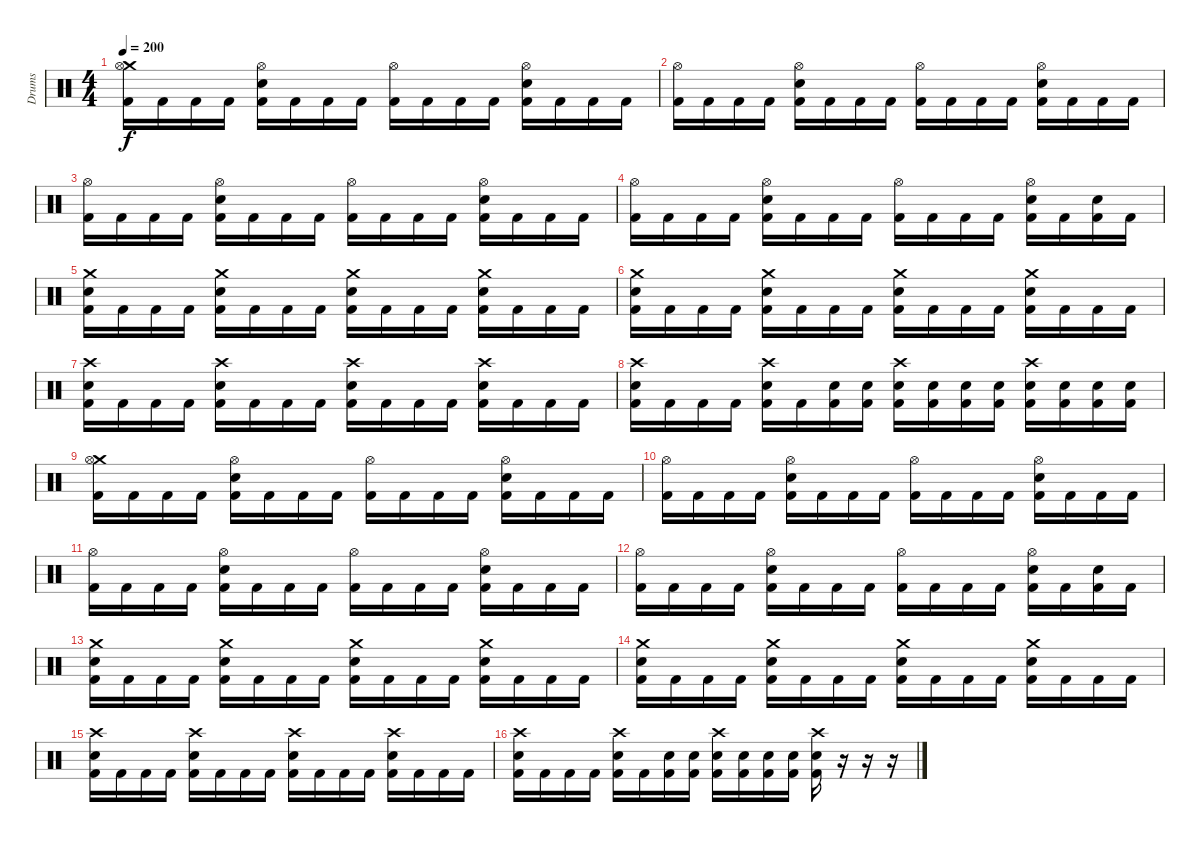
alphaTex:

\track ("Drums" "Drums") {instrument percussion}
\staff {score}
\articulation defaults
\ts (4 4)
\tempo 200
\clef neutral
\ks c
("Crash medium (hit)" "Hi-Hat (open)" "Kick (hit) 2").16{dy f} "Kick (hit) 2".16 "Kick (hit) 2".16 "Kick (hit) 2".16 ("Hi-Hat (open)" "Electric Snare (hit)" "Kick (hit) 2").16 "Kick (hit) 2".16 "Kick (hit) 2".16 "Kick (hit) 2".16 ("Hi-Hat (open)" "Kick (hit) 2").16 "Kick (hit) 2".16 "Kick (hit) 2".16 "Kick (hit) 2".16 ("Hi-Hat (open)" "Electric Snare (hit)" "Kick (hit) 2").16 "Kick (hit) 2".16 "Kick (hit) 2".16 "Kick (hit) 2".16 |
("Hi-Hat (open)" "Kick (hit) 2").16 "Kick (hit) 2".16 "Kick (hit) 2".16 "Kick (hit) 2".16 ("Hi-Hat (open)" "Electric Snare (hit)" "Kick (hit) 2").16 "Kick (hit) 2".16 "Kick (hit) 2".16 "Kick (hit) 2".16 ("Hi-Hat (open)" "Kick (hit) 2").16 "Kick (hit) 2".16 "Kick (hit) 2".16 "Kick (hit) 2".16 ("Hi-Hat (open)" "Electric Snare (hit)" "Kick (hit) 2").16 "Kick (hit) 2".16 "Kick (hit) 2".16 "Kick (hit) 2".16 |
("Hi-Hat (open)" "Kick (hit) 2").16 "Kick (hit) 2".16 "Kick (hit) 2".16 "Kick (hit) 2".16 ("Hi-Hat (open)" "Electric Snare (hit)" "Kick (hit) 2").16 "Kick (hit) 2".16 "Kick (hit) 2".16 "Kick (hit) 2".16 ("Hi-Hat (open)" "Kick (hit) 2").16 "Kick (hit) 2".16 "Kick (hit) 2".16 "Kick (hit) 2".16 ("Hi-Hat (open)" "Electric Snare (hit)" "Kick (hit) 2").16 "Kick (hit) 2".16 "Kick (hit) 2".16 "Kick (hit) 2".16 |
("Hi-Hat (open)" "Kick (hit) 2").16 "Kick (hit) 2".16 "Kick (hit) 2".16 "Kick (hit) 2".16 ("Hi-Hat (open)" "Electric Snare (hit)" "Kick (hit) 2").16 "Kick (hit) 2".16 "Kick (hit) 2".16 "Kick (hit) 2".16 ("Hi-Hat (open)" "Kick (hit) 2").16 "Kick (hit) 2".16 "Kick (hit) 2".16 "Kick (hit) 2".16 ("Hi-Hat (open)" "Electric Snare (hit)" "Kick (hit) 2").16 "Kick (hit) 2".16 ("Electric Snare (hit)" "Kick (hit) 2").16 "Kick (hit) 2".16 |
("Crash medium (hit)" "Electric Snare (hit)" "Kick (hit) 2").16 "Kick (hit) 2".16 "Kick (hit) 2".16 "Kick (hit) 2".16 ("Crash medium (hit)" "Electric Snare (hit)" "Kick (hit) 2").16 "Kick (hit) 2".16 "Kick (hit) 2".16 "Kick (hit) 2".16 ("Crash medium (hit)" "Electric Snare (hit)" "Kick (hit) 2").16 "Kick (hit) 2".16 "Kick (hit) 2".16 "Kick (hit) 2".16 ("Crash medium (hit)" "Electric Snare (hit)" "Kick (hit) 2").16 "Kick (hit) 2".16 "Kick (hit) 2".16 "Kick (hit) 2".16 |
("Crash medium (hit)" "Electric Snare (hit)" "Kick (hit) 2").16 "Kick (hit) 2".16 "Kick (hit) 2".16 "Kick (hit) 2".16 ("Crash medium (hit)" "Electric Snare (hit)" "Kick (hit) 2").16 "Kick (hit) 2".16 "Kick (hit) 2".16 "Kick (hit) 2".16 ("Crash medium (hit)" "Electric Snare (hit)" "Kick (hit) 2").16 "Kick (hit) 2".16 "Kick (hit) 2".16 "Kick (hit) 2".16 ("Crash medium (hit)" "Electric Snare (hit)" "Kick (hit) 2").16 "Kick (hit) 2".16 "Kick (hit) 2".16 "Kick (hit) 2".16 |
("Crash high (hit)" "Electric Snare (hit)" "Kick (hit) 2").16 "Kick (hit) 2".16 "Kick (hit) 2".16 "Kick (hit) 2".16 ("Crash high (hit)" "Electric Snare (hit)" "Kick (hit) 2").16 "Kick (hit) 2".16 "Kick (hit) 2".16 "Kick (hit) 2".16 ("Crash high (hit)" "Electric Snare (hit)" "Kick (hit) 2").16 "Kick (hit) 2".16 "Kick (hit) 2".16 "Kick (hit) 2".16 ("Crash high (hit)" "Electric Snare (hit)" "Kick (hit) 2").16 "Kick (hit) 2".16 "Kick (hit) 2".16 "Kick (hit) 2".16 |
("Crash high (hit)" "Electric Snare (hit)" "Kick (hit) 2").16 "Kick (hit) 2".16 "Kick (hit) 2".16 "Kick (hit) 2".16 ("Crash high (hit)" "Electric Snare (hit)" "Kick (hit) 2").16 "Kick (hit) 2".16 ("Electric Snare (hit)" "Kick (hit) 2").16 ("Electric Snare (hit)" "Kick (hit) 2").16 ("Crash high (hit)" "Electric Snare (hit)" "Kick (hit) 2").16 ("Electric Snare (hit)" "Kick (hit) 2").16 ("Electric Snare (hit)" "Kick (hit) 2").16 ("Electric Snare (hit)" "Kick (hit) 2").16 ("Crash high (hit)" "Electric Snare (hit)" "Kick (hit) 2").16 ("Electric Snare (hit)" "Kick (hit) 2").16 ("Electric Snare (hit)" "Kick (hit) 2").16 ("Electric Snare (hit)" "Kick (hit) 2").16 |
("Crash medium (hit)" "Hi-Hat (open)" "Kick (hit) 2").16 "Kick (hit) 2".16 "Kick (hit) 2".16 "Kick (hit) 2".16 ("Hi-Hat (open)" "Electric Snare (hit)" "Kick (hit) 2").16 "Kick (hit) 2".16 "Kick (hit) 2".16 "Kick (hit) 2".16 ("Hi-Hat (open)" "Kick (hit) 2").16 "Kick (hit) 2".16 "Kick (hit) 2".16 "Kick (hit) 2".16 ("Hi-Hat (open)" "Electric Snare (hit)" "Kick (hit) 2").16 "Kick (hit) 2".16 "Kick (hit) 2".16 "Kick (hit) 2".16 |
("Hi-Hat (open)" "Kick (hit) 2").16 "Kick (hit) 2".16 "Kick (hit) 2".16 "Kick (hit) 2".16 ("Hi-Hat (open)" "Electric Snare (hit)" "Kick (hit) 2").16 "Kick (hit) 2".16 "Kick (hit) 2".16 "Kick (hit) 2".16 ("Hi-Hat (open)" "Kick (hit) 2").16 "Kick (hit) 2".16 "Kick (hit) 2".16 "Kick (hit) 2".16 ("Hi-Hat (open)" "Electric Snare (hit)" "Kick (hit) 2").16 "Kick (hit) 2".16 "Kick (hit) 2".16 "Kick (hit) 2".16 |
("Hi-Hat (open)" "Kick (hit) 2").16 "Kick (hit) 2".16 "Kick (hit) 2".16 "Kick (hit) 2".16 ("Hi-Hat (open)" "Electric Snare (hit)" "Kick (hit) 2").16 "Kick (hit) 2".16 "Kick (hit) 2".16 "Kick (hit) 2".16 ("Hi-Hat (open)" "Kick (hit) 2").16 "Kick (hit) 2".16 "Kick (hit) 2".16 "Kick (hit) 2".16 ("Hi-Hat (open)" "Electric Snare (hit)" "Kick (hit) 2").16 "Kick (hit) 2".16 "Kick (hit) 2".16 "Kick (hit) 2".16 |
("Hi-Hat (open)" "Kick (hit) 2").16 "Kick (hit) 2".16 "Kick (hit) 2".16 "Kick (hit) 2".16 ("Hi-Hat (open)" "Electric Snare (hit)" "Kick (hit) 2").16 "Kick (hit) 2".16 "Kick (hit) 2".16 "Kick (hit) 2".16 ("Hi-Hat (open)" "Kick (hit) 2").16 "Kick (hit) 2".16 "Kick (hit) 2".16 "Kick (hit) 2".16 ("Hi-Hat (open)" "Electric Snare (hit)" "Kick (hit) 2").16 "Kick (hit) 2".16 ("Electric Snare (hit)" "Kick (hit) 2").16 "Kick (hit) 2".16 |
("Crash medium (hit)" "Electric Snare (hit)" "Kick (hit) 2").16 "Kick (hit) 2".16 "Kick (hit) 2".16 "Kick (hit) 2".16 ("Crash medium (hit)" "Electric Snare (hit)" "Kick (hit) 2").16 "Kick (hit) 2".16 "Kick (hit) 2".16 "Kick (hit) 2".16 ("Crash medium (hit)" "Electric Snare (hit)" "Kick (hit) 2").16 "Kick (hit) 2".16 "Kick (hit) 2".16 "Kick (hit) 2".16 ("Crash medium (hit)" "Electric Snare (hit)" "Kick (hit) 2").16 "Kick (hit) 2".16 "Kick (hit) 2".16 "Kick (hit) 2".16 |
("Crash medium (hit)" "Electric Snare (hit)" "Kick (hit) 2").16 "Kick (hit) 2".16 "Kick (hit) 2".16 "Kick (hit) 2".16 ("Crash medium (hit)" "Electric Snare (hit)" "Kick (hit) 2").16 "Kick (hit) 2".16 "Kick (hit) 2".16 "Kick (hit) 2".16 ("Crash medium (hit)" "Electric Snare (hit)" "Kick (hit) 2").16 "Kick (hit) 2".16 "Kick (hit) 2".16 "Kick (hit) 2".16 ("Crash medium (hit)" "Electric Snare (hit)" "Kick (hit) 2").16 "Kick (hit) 2".16 "Kick (hit) 2".16 "Kick (hit) 2".16 |
("Crash high (hit)" "Electric Snare (hit)" "Kick (hit) 2").16 "Kick (hit) 2".16 "Kick (hit) 2".16 "Kick (hit) 2".16 ("Crash high (hit)" "Electric Snare (hit)" "Kick (hit) 2").16 "Kick (hit) 2".16 "Kick (hit) 2".16 "Kick (hit) 2".16 ("Crash high (hit)" "Electric Snare (hit)" "Kick (hit) 2").16 "Kick (hit) 2".16 "Kick (hit) 2".16 "Kick (hit) 2".16 ("Crash high (hit)" "Electric Snare (hit)" "Kick (hit) 2").16 "Kick (hit) 2".16 "Kick (hit) 2".16 "Kick (hit) 2".16 |
("Crash high (hit)" "Electric Snare (hit)" "Kick (hit) 2").16 "Kick (hit) 2".16 "Kick (hit) 2".16 "Kick (hit) 2".16 ("Crash high (hit)" "Electric Snare (hit)" "Kick (hit) 2").16 "Kick (hit) 2".16 ("Electric Snare (hit)" "Kick (hit) 2").16 ("Electric Snare (hit)" "Kick (hit) 2").16 ("Crash high (hit)" "Electric Snare (hit)" "Kick (hit) 2").16 ("Electric Snare (hit)" "Kick (hit) 2").16 ("Electric Snare (hit)" "Kick (hit) 2").16 ("Electric Snare (hit)" "Kick (hit) 2").16 ("Crash high (hit)" "Electric Snare (hit)" "Kick (hit) 2").16 r.16 r.16 r.16
